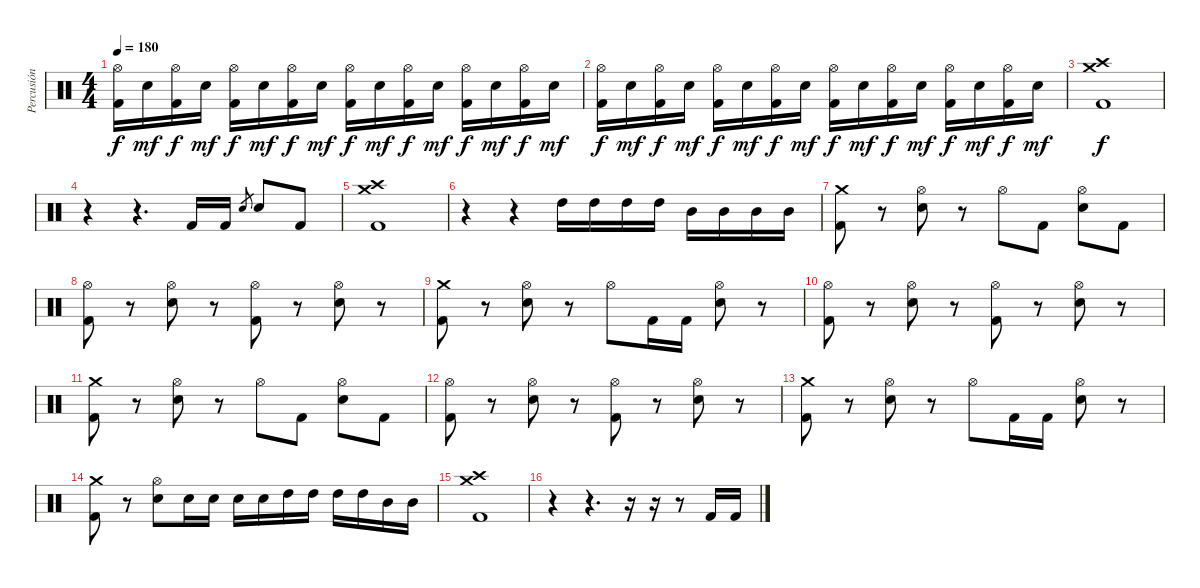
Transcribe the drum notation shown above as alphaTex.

\track ("Percusión" "Percusión") {instrument percussion}
\staff {score}
\articulation defaults
\ts (4 4)
\tempo 180
\clef neutral
\ks c
("Hi-Hat (open)" "Kick (hit) 2").16{dy f} "Electric Snare (hit)".16{dy mf} ("Hi-Hat (open)" "Kick (hit) 2").16{dy f} "Electric Snare (hit)".16{dy mf} ("Hi-Hat (open)" "Kick (hit) 2").16{dy f} "Electric Snare (hit)".16{dy mf} ("Hi-Hat (open)" "Kick (hit) 2").16{dy f} "Electric Snare (hit)".16{dy mf} ("Hi-Hat (open)" "Kick (hit) 2").16{dy f} "Electric Snare (hit)".16{dy mf} ("Hi-Hat (open)" "Kick (hit) 2").16{dy f} "Electric Snare (hit)".16{dy mf} ("Hi-Hat (open)" "Kick (hit) 2").16{dy f} "Electric Snare (hit)".16{dy mf} ("Hi-Hat (open)" "Kick (hit) 2").16{dy f} "Electric Snare (hit)".16{dy mf} |
("Hi-Hat (open)" "Kick (hit) 2").16{dy f} "Electric Snare (hit)".16{dy mf} ("Hi-Hat (open)" "Kick (hit) 2").16{dy f} "Electric Snare (hit)".16{dy mf} ("Hi-Hat (open)" "Kick (hit) 2").16{dy f} "Electric Snare (hit)".16{dy mf} ("Hi-Hat (open)" "Kick (hit) 2").16{dy f} "Electric Snare (hit)".16{dy mf} ("Hi-Hat (open)" "Kick (hit) 2").16{dy f} "Electric Snare (hit)".16{dy mf} ("Hi-Hat (open)" "Kick (hit) 2").16{dy f} "Electric Snare (hit)".16{dy mf} ("Hi-Hat (open)" "Kick (hit) 2").16{dy f} "Electric Snare (hit)".16{dy mf} ("Hi-Hat (open)" "Kick (hit) 2").16{dy f} "Electric Snare (hit)".16{dy mf} |
("Crash high (hit)" "Crash medium (hit)" "Kick (hit) 2").1{dy f} |
r.4 r.4{d} "Kick (hit) 2".16 "Kick (hit) 2".16 "Electric Snare (hit)".8{gr} "Electric Snare (hit)".8 "Kick (hit) 2".8 |
("Crash high (hit)" "Crash medium (hit)" "Kick (hit) 2").1 |
r.4 r.4 "High Tom (hit)".16 "High Tom (hit)".16 "High Tom (hit)".16 "High Tom (hit)".16 "Mid Tom (hit)".16 "Mid Tom (hit)".16 "Mid Tom (hit)".16 "Mid Tom (hit)".16 |
("Crash medium (hit)" "Kick (hit) 2").8 r.8 ("Hi-Hat (open)" "Electric Snare (hit)").8 r.8 "Hi-Hat (open)".8 "Kick (hit) 2".8 ("Hi-Hat (open)" "Electric Snare (hit)").8 "Kick (hit) 2".8 |
("Hi-Hat (open)" "Kick (hit) 2").8 r.8 ("Hi-Hat (open)" "Electric Snare (hit)").8 r.8 ("Hi-Hat (open)" "Kick (hit) 2").8 r.8 ("Hi-Hat (open)" "Electric Snare (hit)").8 r.8 |
("Crash medium (hit)" "Kick (hit) 2").8 r.8 ("Hi-Hat (open)" "Electric Snare (hit)").8 r.8 "Hi-Hat (open)".8 "Kick (hit) 2".16 "Kick (hit) 2".16 ("Hi-Hat (open)" "Electric Snare (hit)").8 r.8 |
("Hi-Hat (open)" "Kick (hit) 2").8 r.8 ("Hi-Hat (open)" "Electric Snare (hit)").8 r.8 ("Hi-Hat (open)" "Kick (hit) 2").8 r.8 ("Hi-Hat (open)" "Electric Snare (hit)").8 r.8 |
("Crash medium (hit)" "Kick (hit) 2").8 r.8 ("Hi-Hat (open)" "Electric Snare (hit)").8 r.8 "Hi-Hat (open)".8 "Kick (hit) 2".8 ("Hi-Hat (open)" "Electric Snare (hit)").8 "Kick (hit) 2".8 |
("Hi-Hat (open)" "Kick (hit) 2").8 r.8 ("Hi-Hat (open)" "Electric Snare (hit)").8 r.8 ("Hi-Hat (open)" "Kick (hit) 2").8 r.8 ("Hi-Hat (open)" "Electric Snare (hit)").8 r.8 |
("Crash medium (hit)" "Kick (hit) 2").8 r.8 ("Hi-Hat (open)" "Electric Snare (hit)").8 r.8 "Hi-Hat (open)".8 "Kick (hit) 2".16 "Kick (hit) 2".16 ("Hi-Hat (open)" "Electric Snare (hit)").8 r.8 |
("Crash medium (hit)" "Kick (hit) 2").8 r.8 ("Hi-Hat (open)" "Electric Snare (hit)").8 "Electric Snare (hit)".16 "Electric Snare (hit)".16 "Electric Snare (hit)".16 "Electric Snare (hit)".16 "High Tom (hit)".16 "High Tom (hit)".16 "High Tom (hit)".16 "High Tom (hit)".16 "Mid Tom (hit)".16 "Mid Tom (hit)".16 |
("Crash high (hit)" "Crash medium (hit)" "Kick (hit) 2").1 |
r.4 r.4{d} r.16 r.16 r.8 "Kick (hit) 2".16 "Kick (hit) 2".16
